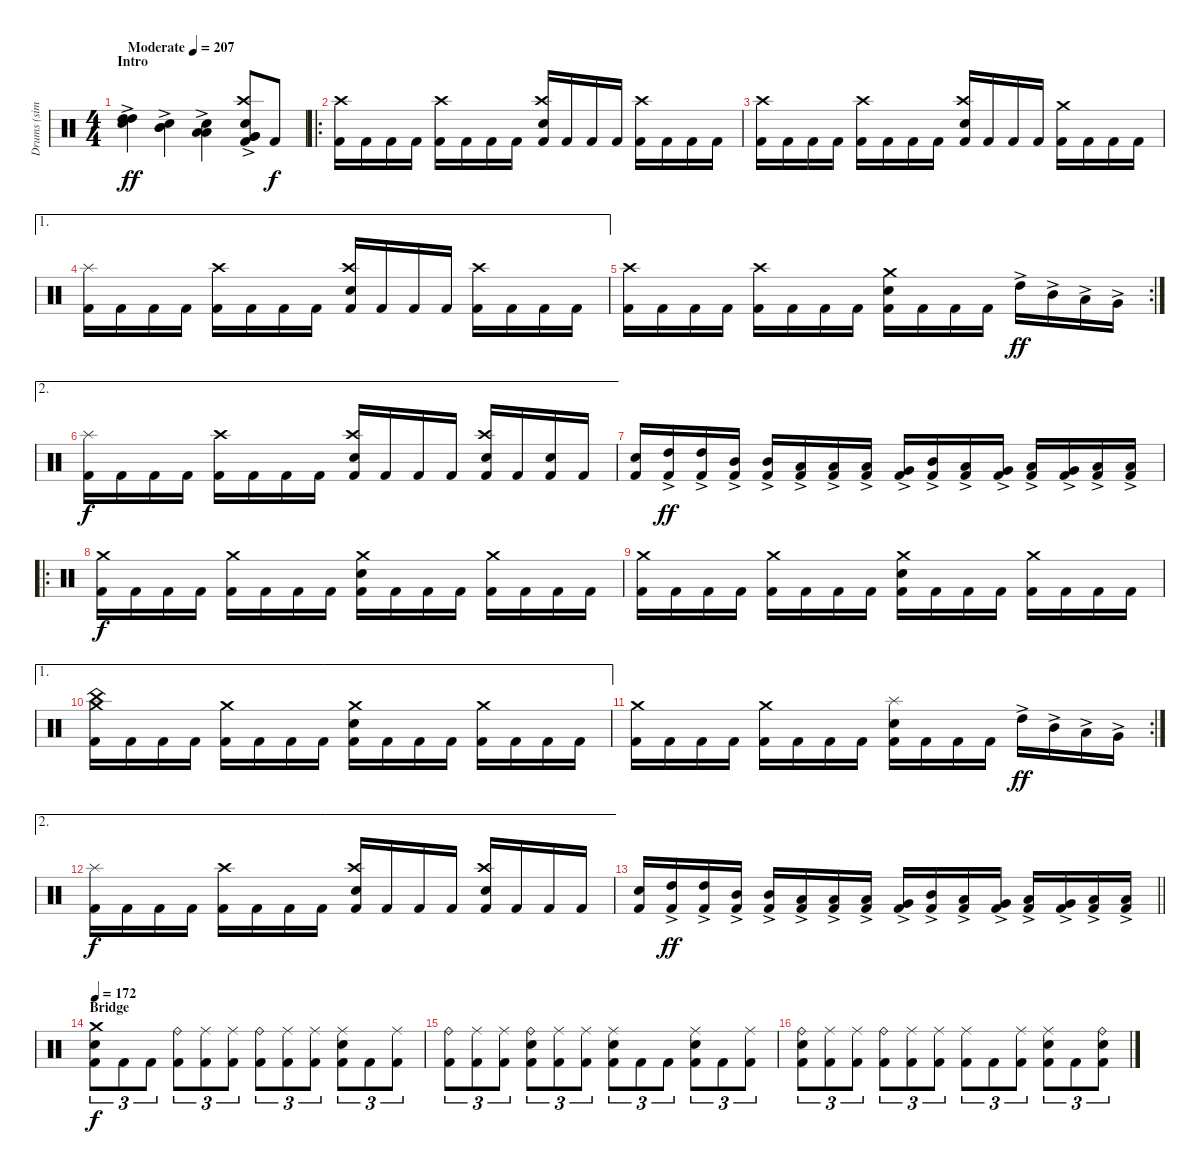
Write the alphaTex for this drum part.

\track ("Drums (simplified)" "Drums (sim") {instrument percussion}
\staff {score}
\articulation defaults
\ts (4 4)
\section ("" "Intro")
\tempo (207 "Moderate")
\clef neutral
\ks c
("High Tom (hit)"{ac} "High Tom (hit)"{ac} "Electric Snare (hit)").4{dy ff} ("Mid Tom (hit)"{ac} "Mid Tom (hit)"{ac} "Electric Snare (hit)").4 ("Low Tom (hit)"{ac} "Low Tom (hit)"{ac} "Electric Snare (hit)").4 ("Very Low Tom (hit)"{ac} "Crash high (hit)" "Very Low Tom (hit)"{ac} "Electric Snare (hit)" "Kick (hit) 2").8 "Kick (hit) 2".8{dy f} |
\ro
("Crash high (hit)" "Kick (hit) 2").16 "Kick (hit) 2".16 "Kick (hit) 2".16 "Kick (hit) 2".16 ("Crash high (hit)" "Kick (hit) 2").16 "Kick (hit) 2".16 "Kick (hit) 2".16 "Kick (hit) 2".16 ("Crash high (hit)" "Electric Snare (hit)" "Kick (hit) 2").16 "Kick (hit) 2".16 "Kick (hit) 2".16 "Kick (hit) 2".16 ("Crash high (hit)" "Kick (hit) 2").16 "Kick (hit) 2".16 "Kick (hit) 2".16 "Kick (hit) 2".16 |
("Crash high (hit)" "Kick (hit) 2").16 "Kick (hit) 2".16 "Kick (hit) 2".16 "Kick (hit) 2".16 ("Crash high (hit)" "Kick (hit) 2").16 "Kick (hit) 2".16 "Kick (hit) 2".16 "Kick (hit) 2".16 ("Crash high (hit)" "Electric Snare (hit)" "Kick (hit) 2").16 "Kick (hit) 2".16 "Kick (hit) 2".16 "Kick (hit) 2".16 ("Crash medium (hit)" "Kick (hit) 2").16 "Kick (hit) 2".16 "Kick (hit) 2".16 "Kick (hit) 2".16 |
\ae 1
("Splash (hit)" "Kick (hit) 2").16 "Kick (hit) 2".16 "Kick (hit) 2".16 "Kick (hit) 2".16 ("Crash high (hit)" "Kick (hit) 2").16 "Kick (hit) 2".16 "Kick (hit) 2".16 "Kick (hit) 2".16 ("Crash high (hit)" "Electric Snare (hit)" "Kick (hit) 2").16 "Kick (hit) 2".16 "Kick (hit) 2".16 "Kick (hit) 2".16 ("Crash high (hit)" "Kick (hit) 2").16 "Kick (hit) 2".16 "Kick (hit) 2".16 "Kick (hit) 2".16 |
\rc 2
("Crash high (hit)" "Kick (hit) 2").16 "Kick (hit) 2".16 "Kick (hit) 2".16 "Kick (hit) 2".16 ("Crash high (hit)" "Kick (hit) 2").16 "Kick (hit) 2".16 "Kick (hit) 2".16 "Kick (hit) 2".16 ("Crash medium (hit)" "Electric Snare (hit)" "Kick (hit) 2").16 "Kick (hit) 2".16 "Kick (hit) 2".16 "Kick (hit) 2".16 "High Tom (hit)"{ac}.16{dy ff} "Mid Tom (hit)"{ac}.16 "Low Tom (hit)"{ac}.16 "Very Low Tom (hit)"{ac}.16 |
\ae 2
("Splash (hit)" "Kick (hit) 2").16{dy f} "Kick (hit) 2".16 "Kick (hit) 2".16 "Kick (hit) 2".16 ("Crash high (hit)" "Kick (hit) 2").16 "Kick (hit) 2".16 "Kick (hit) 2".16 "Kick (hit) 2".16 ("Crash high (hit)" "Electric Snare (hit)" "Kick (hit) 2").16 "Kick (hit) 2".16 "Kick (hit) 2".16 "Kick (hit) 2".16 ("Crash high (hit)" "Electric Snare (hit)" "Kick (hit) 2").16 "Kick (hit) 2".16 ("Electric Snare (hit)" "Kick (hit) 2").16 "Kick (hit) 2".16 |
("Electric Snare (hit)" "Kick (hit) 2").16 ("High Tom (hit)"{ac} "Kick (hit) 2").16{dy ff} ("High Tom (hit)"{ac} "Kick (hit) 2").16 ("Mid Tom (hit)"{ac} "Kick (hit) 2").16 ("Mid Tom (hit)"{ac} "Kick (hit) 2").16 ("Low Tom (hit)"{ac} "Kick (hit) 2").16 ("Low Tom (hit)"{ac} "Kick (hit) 2").16 ("Low Tom (hit)"{ac} "Kick (hit) 2").16 ("Very Low Tom (hit)"{ac} "Kick (hit) 2").16 ("Mid Tom (hit)"{ac} "Kick (hit) 2").16 ("Low Tom (hit)"{ac} "Kick (hit) 2").16 ("Very Low Tom (hit)"{ac} "Kick (hit) 2").16 ("Low Tom (hit)"{ac} "Kick (hit) 2").16 ("Very Low Tom (hit)"{ac} "Kick (hit) 2").16 ("Low Floor Tom (hit)"{ac} "Kick (hit) 2").16 ("Low Floor Tom (hit)"{ac} "Kick (hit) 2").16 |
\ro
("Crash medium (hit)" "Kick (hit) 2").16{dy f} "Kick (hit) 2".16 "Kick (hit) 2".16 "Kick (hit) 2".16 ("Crash medium (hit)" "Kick (hit) 2").16 "Kick (hit) 2".16 "Kick (hit) 2".16 "Kick (hit) 2".16 ("Crash medium (hit)" "Electric Snare (hit)" "Kick (hit) 2").16 "Kick (hit) 2".16 "Kick (hit) 2".16 "Kick (hit) 2".16 ("Crash medium (hit)" "Kick (hit) 2").16 "Kick (hit) 2".16 "Kick (hit) 2".16 "Kick (hit) 2".16 |
("Crash medium (hit)" "Kick (hit) 2").16 "Kick (hit) 2".16 "Kick (hit) 2".16 "Kick (hit) 2".16 ("Crash medium (hit)" "Kick (hit) 2").16 "Kick (hit) 2".16 "Kick (hit) 2".16 "Kick (hit) 2".16 ("Crash medium (hit)" "Electric Snare (hit)" "Kick (hit) 2").16 "Kick (hit) 2".16 "Kick (hit) 2".16 "Kick (hit) 2".16 ("Crash medium (hit)" "Kick (hit) 2").16 "Kick (hit) 2".16 "Kick (hit) 2".16 "Kick (hit) 2".16 |
\ae 1
("China (hit)" "Crash medium (hit)" "Kick (hit) 2").16 "Kick (hit) 2".16 "Kick (hit) 2".16 "Kick (hit) 2".16 ("Crash medium (hit)" "Kick (hit) 2").16 "Kick (hit) 2".16 "Kick (hit) 2".16 "Kick (hit) 2".16 ("Crash medium (hit)" "Electric Snare (hit)" "Kick (hit) 2").16 "Kick (hit) 2".16 "Kick (hit) 2".16 "Kick (hit) 2".16 ("Crash medium (hit)" "Kick (hit) 2").16 "Kick (hit) 2".16 "Kick (hit) 2".16 "Kick (hit) 2".16 |
\rc 2
("Crash medium (hit)" "Kick (hit) 2").16 "Kick (hit) 2".16 "Kick (hit) 2".16 "Kick (hit) 2".16 ("Crash medium (hit)" "Kick (hit) 2").16 "Kick (hit) 2".16 "Kick (hit) 2".16 "Kick (hit) 2".16 ("Splash (hit)" "Electric Snare (hit)" "Kick (hit) 2").16 "Kick (hit) 2".16 "Kick (hit) 2".16 "Kick (hit) 2".16 "High Tom (hit)"{ac}.16{dy ff} "Mid Tom (hit)"{ac}.16 "Low Tom (hit)"{ac}.16 "Very Low Tom (hit)"{ac}.16 |
\ae 2
("Splash (hit)" "Kick (hit) 2").16{dy f} "Kick (hit) 2".16 "Kick (hit) 2".16 "Kick (hit) 2".16 ("Crash high (hit)" "Kick (hit) 2").16 "Kick (hit) 2".16 "Kick (hit) 2".16 "Kick (hit) 2".16 ("Crash high (hit)" "Electric Snare (hit)" "Kick (hit) 2").16 "Kick (hit) 2".16 "Kick (hit) 2".16 "Kick (hit) 2".16 ("Crash high (hit)" "Electric Snare (hit)" "Kick (hit) 2").16 "Kick (hit) 2".16 "Kick (hit) 2".16 "Kick (hit) 2".16 |
\barLineRight lightlight
("Electric Snare (hit)" "Kick (hit) 2").16 ("High Tom (hit)"{ac} "Kick (hit) 2").16{dy ff} ("High Tom (hit)"{ac} "Kick (hit) 2").16 ("Mid Tom (hit)"{ac} "Kick (hit) 2").16 ("Mid Tom (hit)"{ac} "Kick (hit) 2").16 ("Low Tom (hit)"{ac} "Kick (hit) 2").16 ("Low Tom (hit)"{ac} "Kick (hit) 2").16 ("Low Tom (hit)"{ac} "Kick (hit) 2").16 ("Very Low Tom (hit)"{ac} "Kick (hit) 2").16 ("Mid Tom (hit)"{ac} "Kick (hit) 2").16 ("Low Tom (hit)"{ac} "Kick (hit) 2").16 ("Very Low Tom (hit)"{ac} "Kick (hit) 2").16 ("Low Tom (hit)"{ac} "Kick (hit) 2").16 ("Very Low Tom (hit)"{ac} "Kick (hit) 2").16 ("Low Floor Tom (hit)"{ac} "Kick (hit) 2").16 ("Low Floor Tom (hit)"{ac} "Kick (hit) 2").16 |
\section ("" "Bridge")
\tempo 172
("Crash medium (hit)" "Electric Snare (hit)" "Kick (hit) 2").8{tu (3 2) dy f} "Kick (hit) 2".8{tu (3 2)} "Kick (hit) 2".8{tu (3 2)} ("Ride (bell)" "Kick (hit) 2").8{tu (3 2)} ("Ride (middle)" "Kick (hit) 2").8{tu (3 2)} ("Ride (middle)" "Kick (hit) 2").8{tu (3 2)} ("Ride (bell)" "Kick (hit) 2").8{tu (3 2)} ("Ride (middle)" "Kick (hit) 2").8{tu (3 2)} ("Ride (middle)" "Kick (hit) 2").8{tu (3 2)} ("Ride (middle)" "Electric Snare (hit)" "Kick (hit) 2").8{tu (3 2)} "Kick (hit) 2".8{tu (3 2)} ("Ride (middle)" "Kick (hit) 2").8{tu (3 2)} |
("Ride (bell)" "Kick (hit) 2").8{tu (3 2)} ("Ride (middle)" "Kick (hit) 2").8{tu (3 2)} ("Ride (middle)" "Kick (hit) 2").8{tu (3 2)} ("Ride (bell)" "Electric Snare (hit)" "Kick (hit) 2").8{tu (3 2)} ("Ride (middle)" "Kick (hit) 2").8{tu (3 2)} ("Ride (middle)" "Kick (hit) 2").8{tu (3 2)} ("Ride (middle)" "Electric Snare (hit)" "Kick (hit) 2").8{tu (3 2)} "Kick (hit) 2".8{tu (3 2)} "Kick (hit) 2".8{tu (3 2)} ("Ride (middle)" "Electric Snare (hit)" "Kick (hit) 2").8{tu (3 2)} "Kick (hit) 2".8{tu (3 2)} ("Ride (middle)" "Kick (hit) 2").8{tu (3 2)} |
("Ride (bell)" "Electric Snare (hit)" "Kick (hit) 2").8{tu (3 2)} ("Ride (middle)" "Kick (hit) 2").8{tu (3 2)} ("Ride (middle)" "Kick (hit) 2").8{tu (3 2)} ("Ride (bell)" "Kick (hit) 2").8{tu (3 2)} ("Ride (middle)" "Kick (hit) 2").8{tu (3 2)} ("Ride (middle)" "Kick (hit) 2").8{tu (3 2)} ("Ride (middle)" "Kick (hit) 2").8{tu (3 2)} "Kick (hit) 2".8{tu (3 2)} ("Ride (middle)" "Kick (hit) 2").8{tu (3 2)} ("Ride (middle)" "Electric Snare (hit)" "Kick (hit) 2").8{tu (3 2)} "Kick (hit) 2".8{tu (3 2)} ("Ride (bell)" "Electric Snare (hit)" "Kick (hit) 2").8{tu (3 2)}
